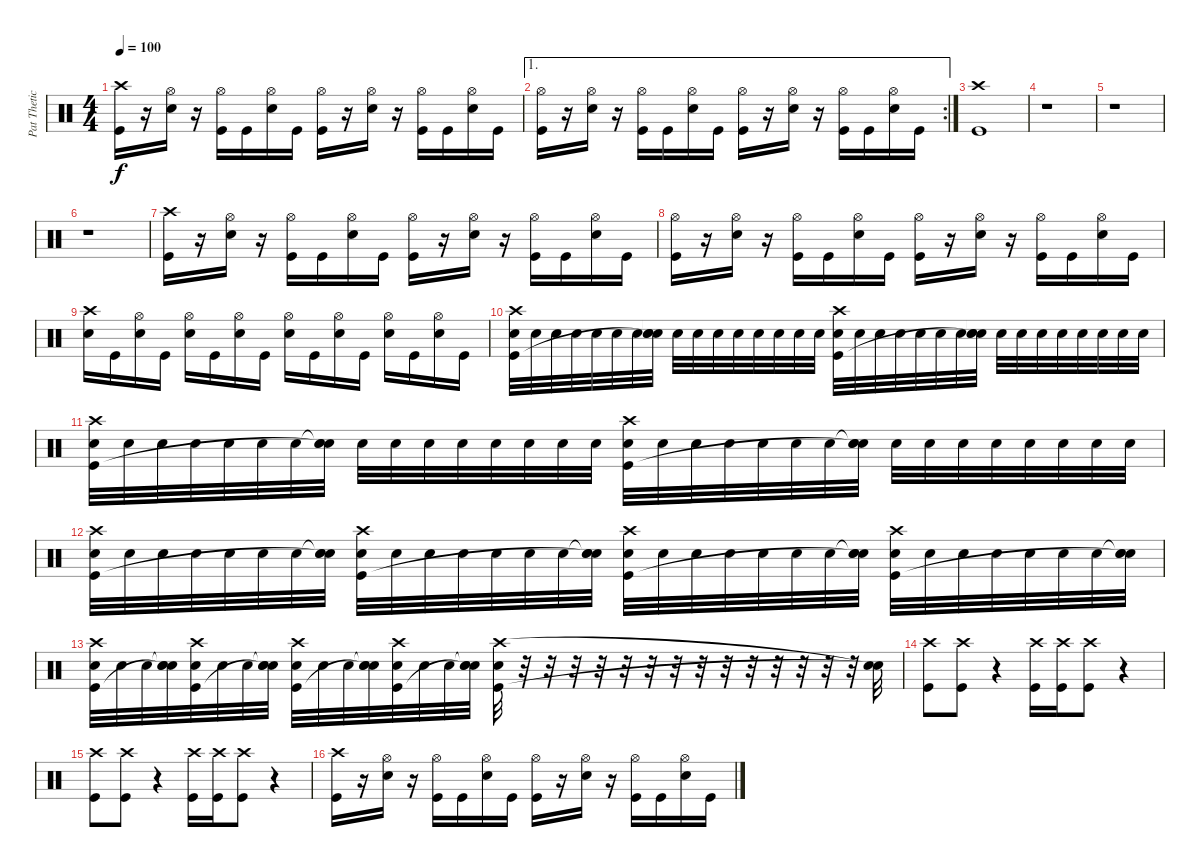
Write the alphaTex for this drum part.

\track ("Pat Thetic" "Pat Thetic") {instrument percussion}
\staff {score}
\articulation defaults
\ts (4 4)
\tempo 100
\clef neutral
\ks c
("Crash high (hit)" "Kick (hit)").16{dy f} r.16 ("Hi-Hat (open)" "Snare (hit) 2").16 r.16 ("Hi-Hat (open)" "Kick (hit)").16 "Kick (hit)".16 ("Hi-Hat (open)" "Snare (hit) 2").16 "Kick (hit)".16 ("Hi-Hat (open)" "Kick (hit)").16 r.16 ("Hi-Hat (open)" "Snare (hit) 2").16 r.16 ("Hi-Hat (open)" "Kick (hit)").16 "Kick (hit)".16 ("Hi-Hat (open)" "Snare (hit) 2").16 "Kick (hit)".16 |
\ae 1
\rc 2
("Hi-Hat (open)" "Kick (hit)").16 r.16 ("Hi-Hat (open)" "Snare (hit) 2").16 r.16 ("Hi-Hat (open)" "Kick (hit)").16 "Kick (hit)".16 ("Hi-Hat (open)" "Snare (hit) 2").16 "Kick (hit)".16 ("Hi-Hat (open)" "Kick (hit)").16 r.16 ("Hi-Hat (open)" "Snare (hit) 2").16 r.16 ("Hi-Hat (open)" "Kick (hit)").16 "Kick (hit)".16 ("Hi-Hat (open)" "Snare (hit) 2").16 "Kick (hit)".16 |
("Crash high (hit)" "Kick (hit)").1 |
r.1 |
r.1 |
r.1 |
("Crash high (hit)" "Kick (hit)").16 r.16 ("Hi-Hat (open)" "Snare (hit) 2").16 r.16 ("Hi-Hat (open)" "Kick (hit)").16 "Kick (hit)".16 ("Hi-Hat (open)" "Snare (hit) 2").16 "Kick (hit)".16 ("Hi-Hat (open)" "Kick (hit)").16 r.16 ("Hi-Hat (open)" "Snare (hit) 2").16 r.16 ("Hi-Hat (open)" "Kick (hit)").16 "Kick (hit)".16 ("Hi-Hat (open)" "Snare (hit) 2").16 "Kick (hit)".16 |
("Hi-Hat (open)" "Kick (hit)").16 r.16 ("Hi-Hat (open)" "Snare (hit) 2").16 r.16 ("Hi-Hat (open)" "Kick (hit)").16 "Kick (hit)".16 ("Hi-Hat (open)" "Snare (hit) 2").16 "Kick (hit)".16 ("Hi-Hat (open)" "Kick (hit)").16 r.16 ("Hi-Hat (open)" "Snare (hit) 2").16 r.16 ("Hi-Hat (open)" "Kick (hit)").16 "Kick (hit)".16 ("Hi-Hat (open)" "Snare (hit) 2").16 "Kick (hit)".16 |
("Crash high (hit)" "Snare (hit) 2").16 "Kick (hit)".16 ("Hi-Hat (open)" "Snare (hit) 2").16 "Kick (hit)".16 ("Hi-Hat (open)" "Snare (hit) 2").16 "Kick (hit)".16 ("Hi-Hat (open)" "Snare (hit) 2").16 "Kick (hit)".16 ("Hi-Hat (open)" "Snare (hit) 2").16 "Kick (hit)".16 ("Hi-Hat (open)" "Snare (hit) 2").16 "Kick (hit)".16 ("Hi-Hat (open)" "Snare (hit) 2").16 "Kick (hit)".16 ("Hi-Hat (open)" "Snare (hit) 2").16 "Kick (hit)".16 |
("Crash high (hit)" "Kick (hit)" "Electric Snare (hit)").32 "Snare (hit) 2".32 "Snare (hit) 2".32 "Snare (hit) 2".32 "Electric Snare (hit)".32 "Snare (hit) 2".32 "Snare (hit) 2".32 ("Snare (hit)"{t} "Snare (hit)"{t} "Snare (hit) 2").32 "Electric Snare (hit)".32 "Snare (hit) 2".32 "Snare (hit) 2".32 "Snare (hit) 2".32 "Electric Snare (hit)".32 "Snare (hit) 2".32 "Snare (hit) 2".32 "Snare (hit) 2".32 ("Crash high (hit)" "Kick (hit)" "Electric Snare (hit)").32 "Snare (hit) 2".32 "Snare (hit) 2".32 "Snare (hit) 2".32 "Electric Snare (hit)".32 "Snare (hit) 2".32 "Snare (hit) 2".32 ("Snare (hit)"{t} "Snare (hit)"{t} "Snare (hit) 2").32 "Electric Snare (hit)".32 "Snare (hit) 2".32 "Snare (hit) 2".32 "Snare (hit) 2".32 "Electric Snare (hit)".32 "Snare (hit) 2".32 "Snare (hit) 2".32 "Snare (hit) 2".32 |
("Crash high (hit)" "Kick (hit)" "Electric Snare (hit)").32 "Snare (hit) 2".32 "Snare (hit) 2".32 "Snare (hit) 2".32 "Electric Snare (hit)".32 "Snare (hit) 2".32 "Snare (hit) 2".32 ("Snare (hit)"{t} "Snare (hit)"{t} "Snare (hit) 2").32 "Electric Snare (hit)".32 "Snare (hit) 2".32 "Snare (hit) 2".32 "Snare (hit) 2".32 "Electric Snare (hit)".32 "Snare (hit) 2".32 "Snare (hit) 2".32 "Snare (hit) 2".32 ("Crash high (hit)" "Kick (hit)" "Electric Snare (hit)").32 "Snare (hit) 2".32 "Snare (hit) 2".32 "Snare (hit) 2".32 "Electric Snare (hit)".32 "Snare (hit) 2".32 "Snare (hit) 2".32 ("Snare (hit)"{t} "Snare (hit)"{t} "Snare (hit) 2").32 "Electric Snare (hit)".32 "Snare (hit) 2".32 "Snare (hit) 2".32 "Snare (hit) 2".32 "Electric Snare (hit)".32 "Snare (hit) 2".32 "Snare (hit) 2".32 "Snare (hit) 2".32 |
("Crash high (hit)" "Kick (hit)" "Electric Snare (hit)").32 "Snare (hit) 2".32 "Snare (hit) 2".32 "Snare (hit) 2".32 "Electric Snare (hit)".32 "Snare (hit) 2".32 "Snare (hit) 2".32 ("Snare (hit)"{t} "Snare (hit)"{t} "Snare (hit) 2").32 ("Crash high (hit)" "Kick (hit)" "Electric Snare (hit)").32 "Snare (hit) 2".32 "Snare (hit) 2".32 "Snare (hit) 2".32 "Electric Snare (hit)".32 "Snare (hit) 2".32 "Snare (hit) 2".32 ("Snare (hit)"{t} "Snare (hit)"{t} "Snare (hit) 2").32 ("Crash high (hit)" "Kick (hit)" "Electric Snare (hit)").32 "Snare (hit) 2".32 "Snare (hit) 2".32 "Snare (hit) 2".32 "Electric Snare (hit)".32 "Snare (hit) 2".32 "Snare (hit) 2".32 ("Snare (hit)"{t} "Snare (hit)"{t} "Snare (hit) 2").32 ("Crash high (hit)" "Kick (hit)" "Electric Snare (hit)").32 "Snare (hit) 2".32 "Snare (hit) 2".32 "Snare (hit) 2".32 "Electric Snare (hit)".32 "Snare (hit) 2".32 "Snare (hit) 2".32 ("Snare (hit)"{t} "Snare (hit)"{t} "Snare (hit) 2").32 |
("Crash high (hit)" "Kick (hit)" "Electric Snare (hit)").32 "Snare (hit) 2".32 "Snare (hit) 2".32 ("Snare (hit)"{t} "Snare (hit)"{t} "Snare (hit) 2").32 ("Crash high (hit)" "Kick (hit)" "Electric Snare (hit)").32 "Snare (hit) 2".32 "Snare (hit) 2".32 ("Snare (hit)"{t} "Snare (hit)"{t} "Snare (hit) 2").32 ("Crash high (hit)" "Kick (hit)" "Electric Snare (hit)").32 "Snare (hit) 2".32 "Snare (hit) 2".32 ("Snare (hit)"{t} "Snare (hit)"{t} "Snare (hit) 2").32 ("Crash high (hit)" "Kick (hit)" "Electric Snare (hit)").32 "Snare (hit) 2".32 "Snare (hit) 2".32 ("Snare (hit)"{t} "Snare (hit)"{t} "Snare (hit) 2").32 ("Crash high (hit)" "Kick (hit)" "Electric Snare (hit)").32 r.32 r.32 r.32 r.32 r.32 r.32 r.32 r.32 r.32 r.32 r.32 r.32 r.32 r.32 ("Snare (hit)"{t} "Snare (hit)"{t}).32 |
("Crash high (hit)" "Kick (hit)").8 ("Crash high (hit)" "Kick (hit)").8 r.4 ("Crash high (hit)" "Kick (hit)").16 ("Crash high (hit)" "Kick (hit)").16 ("Crash high (hit)" "Kick (hit)").8 r.4 |
("Crash high (hit)" "Kick (hit)").8 ("Crash high (hit)" "Kick (hit)").8 r.4 ("Crash high (hit)" "Kick (hit)").16 ("Crash high (hit)" "Kick (hit)").16 ("Crash high (hit)" "Kick (hit)").8 r.4 |
("Crash high (hit)" "Kick (hit)").16 r.16 ("Hi-Hat (open)" "Snare (hit) 2").16 r.16 ("Hi-Hat (open)" "Kick (hit)").16 "Kick (hit)".16 ("Hi-Hat (open)" "Snare (hit) 2").16 "Kick (hit)".16 ("Hi-Hat (open)" "Kick (hit)").16 r.16 ("Hi-Hat (open)" "Snare (hit) 2").16 r.16 ("Hi-Hat (open)" "Kick (hit)").16 "Kick (hit)".16 ("Hi-Hat (open)" "Snare (hit) 2").16 "Kick (hit)".16
